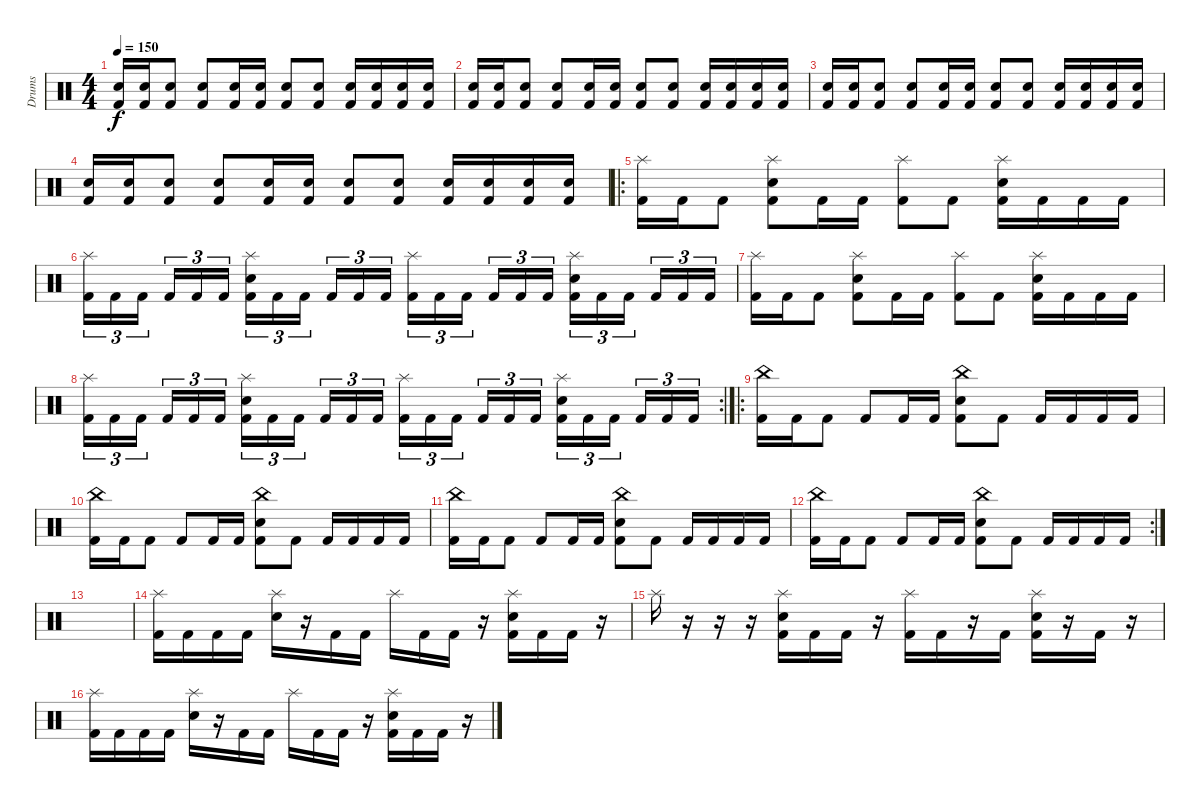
\track ("Drums" "Drums") {instrument percussion}
\staff {score}
\articulation defaults
\ts (4 4)
\tempo 150
\clef neutral
\ks c
("Electric Snare (hit)" "Kick (hit) 2").16{dy f} ("Electric Snare (hit)" "Kick (hit) 2").16 ("Electric Snare (hit)" "Kick (hit) 2").8 ("Electric Snare (hit)" "Kick (hit) 2").8 ("Electric Snare (hit)" "Kick (hit) 2").16 ("Electric Snare (hit)" "Kick (hit) 2").16 ("Electric Snare (hit)" "Kick (hit) 2").8 ("Electric Snare (hit)" "Kick (hit) 2").8 ("Electric Snare (hit)" "Kick (hit) 2").16 ("Electric Snare (hit)" "Kick (hit) 2").16 ("Electric Snare (hit)" "Kick (hit) 2").16 ("Electric Snare (hit)" "Kick (hit) 2").16 |
("Electric Snare (hit)" "Kick (hit) 2").16 ("Electric Snare (hit)" "Kick (hit) 2").16 ("Electric Snare (hit)" "Kick (hit) 2").8 ("Electric Snare (hit)" "Kick (hit) 2").8 ("Electric Snare (hit)" "Kick (hit) 2").16 ("Electric Snare (hit)" "Kick (hit) 2").16 ("Electric Snare (hit)" "Kick (hit) 2").8 ("Electric Snare (hit)" "Kick (hit) 2").8 ("Electric Snare (hit)" "Kick (hit) 2").16 ("Electric Snare (hit)" "Kick (hit) 2").16 ("Electric Snare (hit)" "Kick (hit) 2").16 ("Electric Snare (hit)" "Kick (hit) 2").16 |
("Electric Snare (hit)" "Kick (hit) 2").16 ("Electric Snare (hit)" "Kick (hit) 2").16 ("Electric Snare (hit)" "Kick (hit) 2").8 ("Electric Snare (hit)" "Kick (hit) 2").8 ("Electric Snare (hit)" "Kick (hit) 2").16 ("Electric Snare (hit)" "Kick (hit) 2").16 ("Electric Snare (hit)" "Kick (hit) 2").8 ("Electric Snare (hit)" "Kick (hit) 2").8 ("Electric Snare (hit)" "Kick (hit) 2").16 ("Electric Snare (hit)" "Kick (hit) 2").16 ("Electric Snare (hit)" "Kick (hit) 2").16 ("Electric Snare (hit)" "Kick (hit) 2").16 |
("Electric Snare (hit)" "Kick (hit) 2").16 ("Electric Snare (hit)" "Kick (hit) 2").16 ("Electric Snare (hit)" "Kick (hit) 2").8 ("Electric Snare (hit)" "Kick (hit) 2").8 ("Electric Snare (hit)" "Kick (hit) 2").16 ("Electric Snare (hit)" "Kick (hit) 2").16 ("Electric Snare (hit)" "Kick (hit) 2").8 ("Electric Snare (hit)" "Kick (hit) 2").8 ("Electric Snare (hit)" "Kick (hit) 2").16 ("Electric Snare (hit)" "Kick (hit) 2").16 ("Electric Snare (hit)" "Kick (hit) 2").16 ("Electric Snare (hit)" "Kick (hit) 2").16 |
\ro
("Splash (hit)" "Kick (hit) 2").16 "Kick (hit) 2".16 "Kick (hit) 2".8 ("Splash (hit)" "Electric Snare (hit)" "Kick (hit) 2").8 "Kick (hit) 2".16 "Kick (hit) 2".16 ("Splash (hit)" "Kick (hit) 2").8 "Kick (hit) 2".8 ("Splash (hit)" "Electric Snare (hit)" "Kick (hit) 2").16 "Kick (hit) 2".16 "Kick (hit) 2".16 "Kick (hit) 2".16 |
("Splash (hit)" "Kick (hit) 2").16{tu (3 2)} "Kick (hit) 2".16{tu (3 2)} "Kick (hit) 2".16{tu (3 2) beam splitsecondary} "Kick (hit) 2".16{tu (3 2)} "Kick (hit) 2".16{tu (3 2)} "Kick (hit) 2".16{tu (3 2)} ("Splash (hit)" "Electric Snare (hit)" "Kick (hit) 2").16{tu (3 2)} "Kick (hit) 2".16{tu (3 2)} "Kick (hit) 2".16{tu (3 2) beam splitsecondary} "Kick (hit) 2".16{tu (3 2)} "Kick (hit) 2".16{tu (3 2)} "Kick (hit) 2".16{tu (3 2)} ("Splash (hit)" "Kick (hit) 2").16{tu (3 2)} "Kick (hit) 2".16{tu (3 2)} "Kick (hit) 2".16{tu (3 2) beam splitsecondary} "Kick (hit) 2".16{tu (3 2)} "Kick (hit) 2".16{tu (3 2)} "Kick (hit) 2".16{tu (3 2)} ("Splash (hit)" "Electric Snare (hit)" "Kick (hit) 2").16{tu (3 2)} "Kick (hit) 2".16{tu (3 2)} "Kick (hit) 2".16{tu (3 2) beam splitsecondary} "Kick (hit) 2".16{tu (3 2)} "Kick (hit) 2".16{tu (3 2)} "Kick (hit) 2".16{tu (3 2)} |
("Splash (hit)" "Kick (hit) 2").16 "Kick (hit) 2".16 "Kick (hit) 2".8 ("Splash (hit)" "Electric Snare (hit)" "Kick (hit) 2").8 "Kick (hit) 2".16 "Kick (hit) 2".16 ("Splash (hit)" "Kick (hit) 2").8 "Kick (hit) 2".8 ("Splash (hit)" "Electric Snare (hit)" "Kick (hit) 2").16 "Kick (hit) 2".16 "Kick (hit) 2".16 "Kick (hit) 2".16 |
\rc 2
("Splash (hit)" "Kick (hit) 2").16{tu (3 2)} "Kick (hit) 2".16{tu (3 2)} "Kick (hit) 2".16{tu (3 2) beam splitsecondary} "Kick (hit) 2".16{tu (3 2)} "Kick (hit) 2".16{tu (3 2)} "Kick (hit) 2".16{tu (3 2)} ("Splash (hit)" "Electric Snare (hit)" "Kick (hit) 2").16{tu (3 2)} "Kick (hit) 2".16{tu (3 2)} "Kick (hit) 2".16{tu (3 2) beam splitsecondary} "Kick (hit) 2".16{tu (3 2)} "Kick (hit) 2".16{tu (3 2)} "Kick (hit) 2".16{tu (3 2)} ("Splash (hit)" "Kick (hit) 2").16{tu (3 2)} "Kick (hit) 2".16{tu (3 2)} "Kick (hit) 2".16{tu (3 2) beam splitsecondary} "Kick (hit) 2".16{tu (3 2)} "Kick (hit) 2".16{tu (3 2)} "Kick (hit) 2".16{tu (3 2)} ("Splash (hit)" "Electric Snare (hit)" "Kick (hit) 2").16{tu (3 2)} "Kick (hit) 2".16{tu (3 2)} "Kick (hit) 2".16{tu (3 2) beam splitsecondary} "Kick (hit) 2".16{tu (3 2)} "Kick (hit) 2".16{tu (3 2)} "Kick (hit) 2".16{tu (3 2)} |
\ro
("China (hit)" "Kick (hit) 2").16 "Kick (hit) 2".16 "Kick (hit) 2".8 "Kick (hit) 2".8 "Kick (hit) 2".16 "Kick (hit) 2".16 ("China (hit)" "Electric Snare (hit)" "Kick (hit) 2").8 "Kick (hit) 2".8 "Kick (hit) 2".16 "Kick (hit) 2".16 "Kick (hit) 2".16 "Kick (hit) 2".16 |
("China (hit)" "Kick (hit) 2").16 "Kick (hit) 2".16 "Kick (hit) 2".8 "Kick (hit) 2".8 "Kick (hit) 2".16 "Kick (hit) 2".16 ("China (hit)" "Electric Snare (hit)" "Kick (hit) 2").8 "Kick (hit) 2".8 "Kick (hit) 2".16 "Kick (hit) 2".16 "Kick (hit) 2".16 "Kick (hit) 2".16 |
("China (hit)" "Kick (hit) 2").16 "Kick (hit) 2".16 "Kick (hit) 2".8 "Kick (hit) 2".8 "Kick (hit) 2".16 "Kick (hit) 2".16 ("China (hit)" "Electric Snare (hit)" "Kick (hit) 2").8 "Kick (hit) 2".8 "Kick (hit) 2".16 "Kick (hit) 2".16 "Kick (hit) 2".16 "Kick (hit) 2".16 |
\rc 2
("China (hit)" "Kick (hit) 2").16 "Kick (hit) 2".16 "Kick (hit) 2".8 "Kick (hit) 2".8 "Kick (hit) 2".16 "Kick (hit) 2".16 ("China (hit)" "Electric Snare (hit)" "Kick (hit) 2").8 "Kick (hit) 2".8 "Kick (hit) 2".16 "Kick (hit) 2".16 "Kick (hit) 2".16 "Kick (hit) 2".16 |
|
("Splash (hit)" "Kick (hit) 2").16 "Kick (hit) 2".16 "Kick (hit) 2".16 "Kick (hit) 2".16 ("Splash (hit)" "Electric Snare (hit)").16 r.16 "Kick (hit) 2".16 "Kick (hit) 2".16 "Splash (hit)".16 "Kick (hit) 2".16 "Kick (hit) 2".16 r.16 ("Splash (hit)" "Electric Snare (hit)" "Kick (hit) 2").16 "Kick (hit) 2".16 "Kick (hit) 2".16 r.16 |
"Splash (hit)".16 r.16 r.16 r.16 ("Splash (hit)" "Electric Snare (hit)" "Kick (hit) 2").16 "Kick (hit) 2".16 "Kick (hit) 2".16 r.16 ("Splash (hit)" "Kick (hit) 2").16 "Kick (hit) 2".16 r.16 "Kick (hit) 2".16 ("Splash (hit)" "Electric Snare (hit)" "Kick (hit) 2").16 r.16 "Kick (hit) 2".16 r.16 |
("Splash (hit)" "Kick (hit) 2").16 "Kick (hit) 2".16 "Kick (hit) 2".16 "Kick (hit) 2".16 ("Splash (hit)" "Electric Snare (hit)").16 r.16 "Kick (hit) 2".16 "Kick (hit) 2".16 "Splash (hit)".16 "Kick (hit) 2".16 "Kick (hit) 2".16 r.16 ("Splash (hit)" "Electric Snare (hit)" "Kick (hit) 2").16 "Kick (hit) 2".16 "Kick (hit) 2".16 r.16
